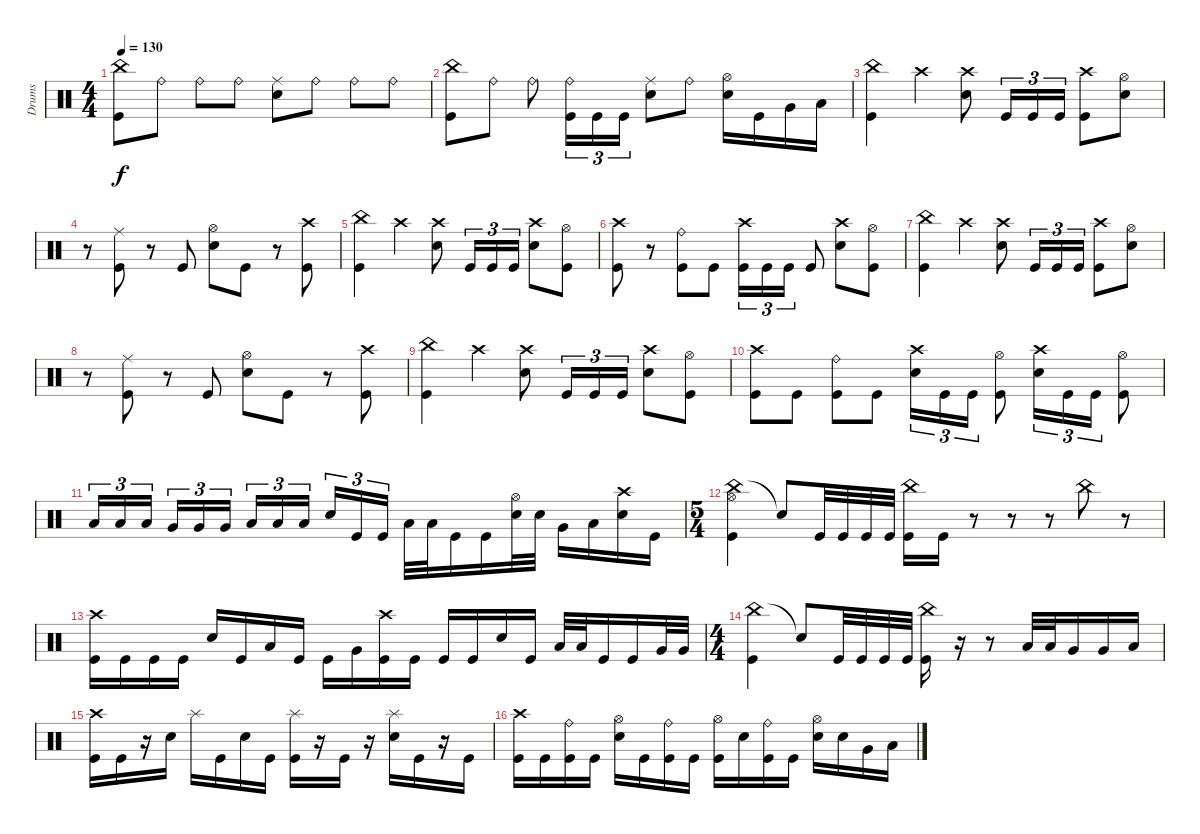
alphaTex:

\track ("Drums" "Drums") {instrument percussion}
\staff {score}
\articulation defaults
\ts (4 4)
\tempo 130
\clef neutral
\ks c
("China (hit)" "Kick (hit)").8{dy f} "Ride (bell)".8 "Ride (bell)".8 "Ride (bell)".8 ("Ride (middle)" "Snare (hit) 2").8 "Ride (bell)".8 "Ride (bell)".8 "Ride (bell)".8 |
("China (hit)" "Kick (hit)").8 "Ride (bell)".8 "Ride (bell)".8 ("Ride (bell)" "Kick (hit)").16{tu (3 2)} "Kick (hit)".16{tu (3 2)} "Kick (hit)".16{tu (3 2)} ("Ride (middle)" "Snare (hit) 2").8 "Ride (bell)".8 ("Hi-Hat (open)" "Snare (hit) 2").16 "Kick (hit)".16 "Very Low Tom (hit)".16 "Low Floor Tom (hit)".16 |
("China (hit)" "Kick (hit)").4 "Crash high (hit)".4 ("Crash high (hit)" "Snare (hit) 2").8 "Kick (hit)".16{tu (3 2)} "Kick (hit)".16{tu (3 2)} "Kick (hit)".16{tu (3 2)} ("Crash high (hit)" "Kick (hit)").8 ("Hi-Hat (open)" "Snare (hit) 2").8 |
r.8 ("Ride (middle)" "Kick (hit)").8 r.8 "Kick (hit)".8 ("Hi-Hat (open)" "Snare (hit) 2").8 "Kick (hit)".8 r.8 ("Crash high (hit)" "Kick (hit)").8 |
("China (hit)" "Kick (hit)").4 "Crash high (hit)".4 ("Crash high (hit)" "Snare (hit) 2").8 "Kick (hit)".16{tu (3 2)} "Kick (hit)".16{tu (3 2)} "Kick (hit)".16{tu (3 2)} ("Crash high (hit)" "Snare (hit) 2").8 ("Hi-Hat (open)" "Kick (hit)").8 |
("Crash high (hit)" "Kick (hit)").8 r.8 ("Ride (bell)" "Kick (hit)").8 "Kick (hit)".8 ("Crash high (hit)" "Kick (hit)").16{tu (3 2)} "Kick (hit)".16{tu (3 2)} "Kick (hit)".16{tu (3 2)} "Kick (hit)".8 ("Crash high (hit)" "Snare (hit) 2").8 ("Hi-Hat (open)" "Kick (hit)").8 |
("China (hit)" "Kick (hit)").4 "Crash high (hit)".4 ("Crash high (hit)" "Snare (hit) 2").8 "Kick (hit)".16{tu (3 2)} "Kick (hit)".16{tu (3 2)} "Kick (hit)".16{tu (3 2)} ("Crash high (hit)" "Kick (hit)").8 ("Hi-Hat (open)" "Snare (hit) 2").8 |
r.8 ("Ride (middle)" "Kick (hit)").8 r.8 "Kick (hit)".8 ("Hi-Hat (open)" "Snare (hit) 2").8 "Kick (hit)".8 r.8 ("Crash high (hit)" "Kick (hit)").8 |
("China (hit)" "Kick (hit)").4 "Crash high (hit)".4 ("Crash high (hit)" "Snare (hit) 2").8 "Kick (hit)".16{tu (3 2)} "Kick (hit)".16{tu (3 2)} "Kick (hit)".16{tu (3 2)} ("Crash high (hit)" "Snare (hit) 2").8 ("Hi-Hat (open)" "Kick (hit)").8 |
("Crash high (hit)" "Kick (hit)").8 "Kick (hit)".8 ("Ride (bell)" "Kick (hit)").8 "Kick (hit)".8 ("Crash high (hit)" "Snare (hit) 2").16{tu (3 2)} "Kick (hit)".16{tu (3 2)} "Kick (hit)".16{tu (3 2)} ("Hi-Hat (open)" "Kick (hit)").8 ("Crash high (hit)" "Snare (hit) 2").16{tu (3 2)} "Kick (hit)".16{tu (3 2)} "Kick (hit)".16{tu (3 2)} ("Hi-Hat (open)" "Kick (hit)").8 |
"Low Tom (hit)".16{tu (3 2)} "Low Tom (hit)".16{tu (3 2)} "Low Tom (hit)".16{tu (3 2) beam splitsecondary} "Very Low Tom (hit)".16{tu (3 2)} "Very Low Tom (hit)".16{tu (3 2)} "Very Low Tom (hit)".16{tu (3 2)} "Low Floor Tom (hit)".16{tu (3 2)} "Low Floor Tom (hit)".16{tu (3 2)} "Low Floor Tom (hit)".16{tu (3 2) beam splitsecondary} "Snare (hit) 2".16{tu (3 2)} "Kick (hit)".16{tu (3 2)} "Kick (hit)".16{tu (3 2)} "Low Tom (hit)".32 "Low Tom (hit)".32 "Kick (hit)".16 "Kick (hit)".16 ("Hi-Hat (open)" "Snare (hit) 2").32 "Snare (hit) 2".32 "Very Low Tom (hit)".16 "Low Floor Tom (hit)".16 ("Crash high (hit)" "Snare (hit) 2").16 "Kick (hit)".16 |
\ts (5 4)
("China (hit)" "Hi-Hat (open)" "Kick (hit)").4 "Snare (hit)"{t}.8 "Kick (hit)".32 "Kick (hit)".32 "Kick (hit)".32 "Kick (hit)".32 ("China (hit)" "Kick (hit)").16 "Kick (hit)".16 r.8 r.8 r.8 "China (hit)".8 r.8 |
("Crash high (hit)" "Kick (hit)").16 "Kick (hit)".16 "Kick (hit)".16 "Kick (hit)".16 "Snare (hit) 2".16 "Kick (hit)".16 "Low Tom (hit)".16 "Kick (hit)".16 "Kick (hit)".16 "Very Low Tom (hit)".16 ("Crash high (hit)" "Kick (hit)").16 "Kick (hit)".16 "Kick (hit)".16 "Kick (hit)".16 "Snare (hit) 2".16 "Kick (hit)".16 "Low Tom (hit)".32 "Low Tom (hit)".32 "Kick (hit)".16 "Kick (hit)".16 "Very Low Tom (hit)".32 "Very Low Tom (hit)".32 |
\ts (4 4)
("China (hit)" "Kick (hit)").4 "Snare (hit)"{t}.8 "Kick (hit)".32 "Kick (hit)".32 "Kick (hit)".32 "Kick (hit)".32 ("China (hit)" "Kick (hit)").16 r.16 r.8 "Low Tom (hit)".32 "Low Tom (hit)".32 "Very Low Tom (hit)".16 "Very Low Tom (hit)".16 "Low Floor Tom (hit)".16 |
("Crash high (hit)" "Kick (hit)").16 "Kick (hit)".16 r.16 "Snare (hit) 2".16 "Splash (hit)".16 "Kick (hit)".16 "Snare (hit) 2".16 "Kick (hit)".16 ("Splash (hit)" "Kick (hit)").16 r.16 "Kick (hit)".16 r.16 ("Splash (hit)" "Snare (hit) 2").16 "Kick (hit)".16 r.16 "Kick (hit)".16 |
("Crash high (hit)" "Kick (hit)").16 "Kick (hit)".16 ("Ride (bell)" "Kick (hit)").16 "Kick (hit)".16 ("Hi-Hat (open)" "Snare (hit) 2").16 "Kick (hit)".16 ("Ride (bell)" "Kick (hit)").16 "Kick (hit)".16 ("Hi-Hat (open)" "Kick (hit)").16 "Snare (hit) 2".16 ("Ride (bell)" "Kick (hit)").16 "Kick (hit)".16 ("Hi-Hat (open)" "Snare (hit) 2").16 "Snare (hit) 2".16 "Very Low Tom (hit)".16 "Low Floor Tom (hit)".16
